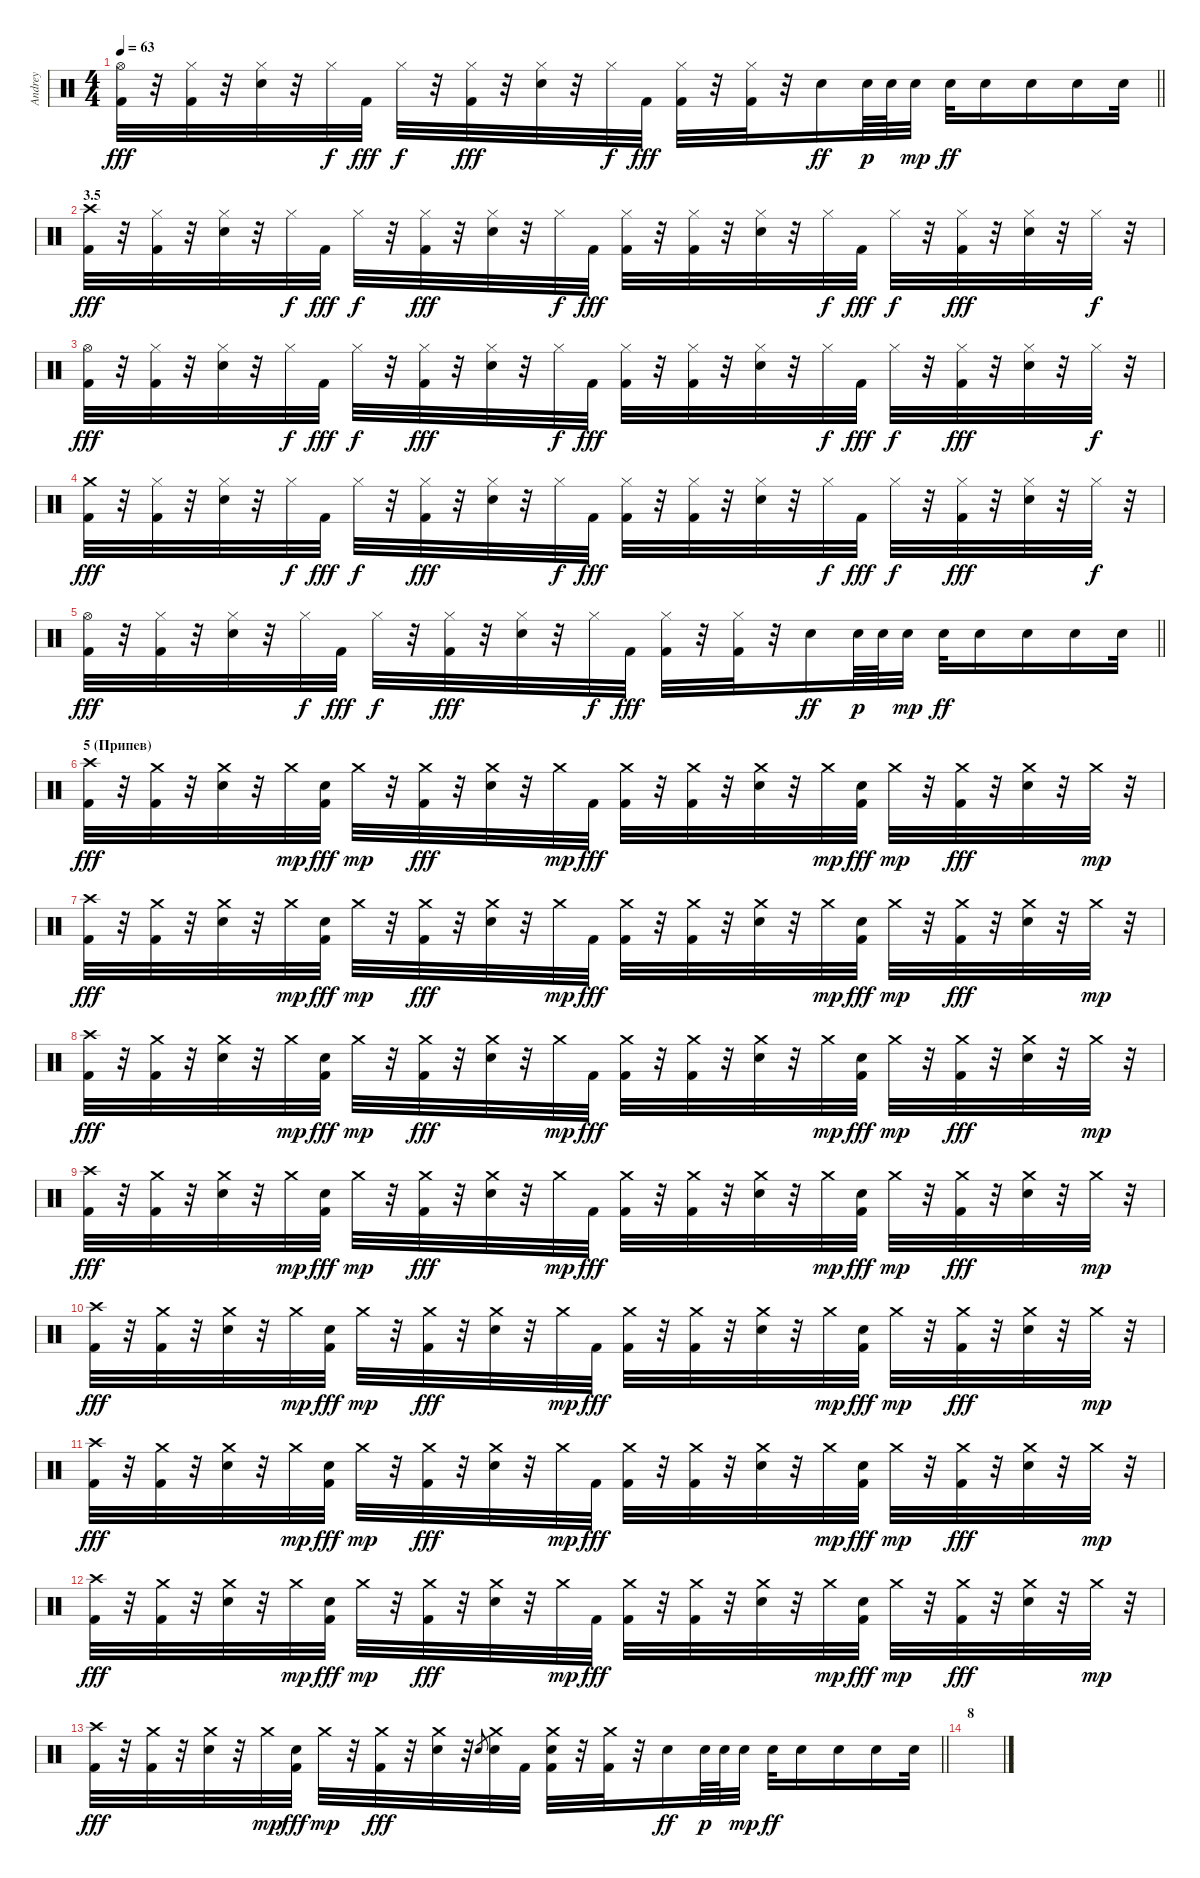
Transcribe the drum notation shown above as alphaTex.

\track ("Andrey" "Andrey") {instrument percussion}
\staff {score}
\articulation defaults
\ts (4 4)
\tempo 63
\clef neutral
\barLineRight lightlight
\ks c
("Hi-Hat (open)" "Kick (hit) 2").32{dy fff} r.32 ("Hi-Hat (closed)" "Kick (hit) 2").32 r.32 ("Hi-Hat (closed)" "Snare (hit) 2").32 r.32 "Hi-Hat (closed)".32{dy f} "Kick (hit) 2".32{dy fff} "Hi-Hat (closed)".32{dy f} r.32 ("Hi-Hat (closed)" "Kick (hit) 2").32{dy fff} r.32 ("Hi-Hat (closed)" "Snare (hit) 2").32 r.32 "Hi-Hat (closed)".32{dy f} "Kick (hit) 2".32{dy fff} ("Hi-Hat (closed)" "Kick (hit) 2").32 r.32 ("Hi-Hat (closed)" "Kick (hit) 2").32 r.32 "Electric Snare (hit)".16{dy ff} "Electric Snare (hit)".64{dy p} "Electric Snare (hit)".64 "Electric Snare (hit)".32{dy mp} "Electric Snare (hit)".32{dy ff} "Electric Snare (hit)".16 "Electric Snare (hit)".16 "Electric Snare (hit)".16 "Electric Snare (hit)".32 |
\section ("" "3.5")
("Crash high (hit)" "Kick (hit) 2").32{dy fff} r.32 ("Hi-Hat (closed)" "Kick (hit) 2").32 r.32 ("Hi-Hat (closed)" "Snare (hit) 2").32 r.32 "Hi-Hat (closed)".32{dy f} "Kick (hit) 2".32{dy fff} "Hi-Hat (closed)".32{dy f} r.32 ("Hi-Hat (closed)" "Kick (hit) 2").32{dy fff} r.32 ("Hi-Hat (closed)" "Snare (hit) 2").32 r.32 "Hi-Hat (closed)".32{dy f} "Kick (hit) 2".32{dy fff} ("Hi-Hat (closed)" "Kick (hit) 2").32 r.32 ("Hi-Hat (closed)" "Kick (hit) 2").32 r.32 ("Hi-Hat (closed)" "Snare (hit) 2").32 r.32 "Hi-Hat (closed)".32{dy f} "Kick (hit) 2".32{dy fff} "Hi-Hat (closed)".32{dy f} r.32 ("Hi-Hat (closed)" "Kick (hit) 2").32{dy fff} r.32 ("Hi-Hat (closed)" "Snare (hit) 2").32 r.32 "Hi-Hat (closed)".32{dy f} r.32 |
("Hi-Hat (open)" "Kick (hit) 2").32{dy fff} r.32 ("Hi-Hat (closed)" "Kick (hit) 2").32 r.32 ("Hi-Hat (closed)" "Snare (hit) 2").32 r.32 "Hi-Hat (closed)".32{dy f} "Kick (hit) 2".32{dy fff} "Hi-Hat (closed)".32{dy f} r.32 ("Hi-Hat (closed)" "Kick (hit) 2").32{dy fff} r.32 ("Hi-Hat (closed)" "Snare (hit) 2").32 r.32 "Hi-Hat (closed)".32{dy f} "Kick (hit) 2".32{dy fff} ("Hi-Hat (closed)" "Kick (hit) 2").32 r.32 ("Hi-Hat (closed)" "Kick (hit) 2").32 r.32 ("Hi-Hat (closed)" "Snare (hit) 2").32 r.32 "Hi-Hat (closed)".32{dy f} "Kick (hit) 2".32{dy fff} "Hi-Hat (closed)".32{dy f} r.32 ("Hi-Hat (closed)" "Kick (hit) 2").32{dy fff} r.32 ("Hi-Hat (closed)" "Snare (hit) 2").32 r.32 "Hi-Hat (closed)".32{dy f} r.32 |
("Crash medium (hit)" "Kick (hit) 2").32{dy fff} r.32 ("Hi-Hat (closed)" "Kick (hit) 2").32 r.32 ("Hi-Hat (closed)" "Snare (hit) 2").32 r.32 "Hi-Hat (closed)".32{dy f} "Kick (hit) 2".32{dy fff} "Hi-Hat (closed)".32{dy f} r.32 ("Hi-Hat (closed)" "Kick (hit) 2").32{dy fff} r.32 ("Hi-Hat (closed)" "Snare (hit) 2").32 r.32 "Hi-Hat (closed)".32{dy f} "Kick (hit) 2".32{dy fff} ("Hi-Hat (closed)" "Kick (hit) 2").32 r.32 ("Hi-Hat (closed)" "Kick (hit) 2").32 r.32 ("Hi-Hat (closed)" "Snare (hit) 2").32 r.32 "Hi-Hat (closed)".32{dy f} "Kick (hit) 2".32{dy fff} "Hi-Hat (closed)".32{dy f} r.32 ("Hi-Hat (closed)" "Kick (hit) 2").32{dy fff} r.32 ("Hi-Hat (closed)" "Snare (hit) 2").32 r.32 "Hi-Hat (closed)".32{dy f} r.32 |
\barLineRight lightlight
("Hi-Hat (open)" "Kick (hit) 2").32{dy fff} r.32 ("Hi-Hat (closed)" "Kick (hit) 2").32 r.32 ("Hi-Hat (closed)" "Snare (hit) 2").32 r.32 "Hi-Hat (closed)".32{dy f} "Kick (hit) 2".32{dy fff} "Hi-Hat (closed)".32{dy f} r.32 ("Hi-Hat (closed)" "Kick (hit) 2").32{dy fff} r.32 ("Hi-Hat (closed)" "Snare (hit) 2").32 r.32 "Hi-Hat (closed)".32{dy f} "Kick (hit) 2".32{dy fff} ("Hi-Hat (closed)" "Kick (hit) 2").32 r.32 ("Hi-Hat (closed)" "Kick (hit) 2").32 r.32 "Electric Snare (hit)".16{dy ff} "Electric Snare (hit)".64{dy p} "Electric Snare (hit)".64 "Electric Snare (hit)".32{dy mp} "Electric Snare (hit)".32{dy ff} "Electric Snare (hit)".16 "Electric Snare (hit)".16 "Electric Snare (hit)".16 "Electric Snare (hit)".32 |
\section ("" "5 (Припев)")
("Crash high (hit)" "Kick (hit) 2").32{dy fff} r.32 ("Crash medium (hit)" "Kick (hit) 2").32 r.32 ("Crash medium (hit)" "Snare (hit) 2").32 r.32 "Crash medium (hit)".32{dy mp} ("Snare (hit) 2" "Kick (hit) 2").32{dy fff} "Crash medium (hit)".32{dy mp} r.32 ("Crash medium (hit)" "Kick (hit) 2").32{dy fff} r.32 ("Crash medium (hit)" "Snare (hit) 2").32 r.32 "Crash medium (hit)".32{dy mp} "Kick (hit) 2".32{dy fff} ("Crash medium (hit)" "Kick (hit) 2").32 r.32 ("Crash medium (hit)" "Kick (hit) 2").32 r.32 ("Crash medium (hit)" "Snare (hit) 2").32 r.32 "Crash medium (hit)".32{dy mp} ("Snare (hit) 2" "Kick (hit) 2").32{dy fff} "Crash medium (hit)".32{dy mp} r.32 ("Crash medium (hit)" "Kick (hit) 2").32{dy fff} r.32 ("Crash medium (hit)" "Snare (hit) 2").32 r.32 "Crash medium (hit)".32{dy mp} r.32 |
("Crash high (hit)" "Kick (hit) 2").32{dy fff} r.32 ("Crash medium (hit)" "Kick (hit) 2").32 r.32 ("Crash medium (hit)" "Snare (hit) 2").32 r.32 "Crash medium (hit)".32{dy mp} ("Snare (hit) 2" "Kick (hit) 2").32{dy fff} "Crash medium (hit)".32{dy mp} r.32 ("Crash medium (hit)" "Kick (hit) 2").32{dy fff} r.32 ("Crash medium (hit)" "Snare (hit) 2").32 r.32 "Crash medium (hit)".32{dy mp} "Kick (hit) 2".32{dy fff} ("Crash medium (hit)" "Kick (hit) 2").32 r.32 ("Crash medium (hit)" "Kick (hit) 2").32 r.32 ("Crash medium (hit)" "Snare (hit) 2").32 r.32 "Crash medium (hit)".32{dy mp} ("Snare (hit) 2" "Kick (hit) 2").32{dy fff} "Crash medium (hit)".32{dy mp} r.32 ("Crash medium (hit)" "Kick (hit) 2").32{dy fff} r.32 ("Crash medium (hit)" "Snare (hit) 2").32 r.32 "Crash medium (hit)".32{dy mp} r.32 |
("Crash high (hit)" "Kick (hit) 2").32{dy fff} r.32 ("Crash medium (hit)" "Kick (hit) 2").32 r.32 ("Crash medium (hit)" "Snare (hit) 2").32 r.32 "Crash medium (hit)".32{dy mp} ("Snare (hit) 2" "Kick (hit) 2").32{dy fff} "Crash medium (hit)".32{dy mp} r.32 ("Crash medium (hit)" "Kick (hit) 2").32{dy fff} r.32 ("Crash medium (hit)" "Snare (hit) 2").32 r.32 "Crash medium (hit)".32{dy mp} "Kick (hit) 2".32{dy fff} ("Crash medium (hit)" "Kick (hit) 2").32 r.32 ("Crash medium (hit)" "Kick (hit) 2").32 r.32 ("Crash medium (hit)" "Snare (hit) 2").32 r.32 "Crash medium (hit)".32{dy mp} ("Snare (hit) 2" "Kick (hit) 2").32{dy fff} "Crash medium (hit)".32{dy mp} r.32 ("Crash medium (hit)" "Kick (hit) 2").32{dy fff} r.32 ("Crash medium (hit)" "Snare (hit) 2").32 r.32 "Crash medium (hit)".32{dy mp} r.32 |
("Crash high (hit)" "Kick (hit) 2").32{dy fff} r.32 ("Crash medium (hit)" "Kick (hit) 2").32 r.32 ("Crash medium (hit)" "Snare (hit) 2").32 r.32 "Crash medium (hit)".32{dy mp} ("Snare (hit) 2" "Kick (hit) 2").32{dy fff} "Crash medium (hit)".32{dy mp} r.32 ("Crash medium (hit)" "Kick (hit) 2").32{dy fff} r.32 ("Crash medium (hit)" "Snare (hit) 2").32 r.32 "Crash medium (hit)".32{dy mp} "Kick (hit) 2".32{dy fff} ("Crash medium (hit)" "Kick (hit) 2").32 r.32 ("Crash medium (hit)" "Kick (hit) 2").32 r.32 ("Crash medium (hit)" "Snare (hit) 2").32 r.32 "Crash medium (hit)".32{dy mp} ("Snare (hit) 2" "Kick (hit) 2").32{dy fff} "Crash medium (hit)".32{dy mp} r.32 ("Crash medium (hit)" "Kick (hit) 2").32{dy fff} r.32 ("Crash medium (hit)" "Snare (hit) 2").32 r.32 "Crash medium (hit)".32{dy mp} r.32 |
("Crash high (hit)" "Kick (hit) 2").32{dy fff} r.32 ("Crash medium (hit)" "Kick (hit) 2").32 r.32 ("Crash medium (hit)" "Snare (hit) 2").32 r.32 "Crash medium (hit)".32{dy mp} ("Snare (hit) 2" "Kick (hit) 2").32{dy fff} "Crash medium (hit)".32{dy mp} r.32 ("Crash medium (hit)" "Kick (hit) 2").32{dy fff} r.32 ("Crash medium (hit)" "Snare (hit) 2").32 r.32 "Crash medium (hit)".32{dy mp} "Kick (hit) 2".32{dy fff} ("Crash medium (hit)" "Kick (hit) 2").32 r.32 ("Crash medium (hit)" "Kick (hit) 2").32 r.32 ("Crash medium (hit)" "Snare (hit) 2").32 r.32 "Crash medium (hit)".32{dy mp} ("Snare (hit) 2" "Kick (hit) 2").32{dy fff} "Crash medium (hit)".32{dy mp} r.32 ("Crash medium (hit)" "Kick (hit) 2").32{dy fff} r.32 ("Crash medium (hit)" "Snare (hit) 2").32 r.32 "Crash medium (hit)".32{dy mp} r.32 |
("Crash high (hit)" "Kick (hit) 2").32{dy fff} r.32 ("Crash medium (hit)" "Kick (hit) 2").32 r.32 ("Crash medium (hit)" "Snare (hit) 2").32 r.32 "Crash medium (hit)".32{dy mp} ("Snare (hit) 2" "Kick (hit) 2").32{dy fff} "Crash medium (hit)".32{dy mp} r.32 ("Crash medium (hit)" "Kick (hit) 2").32{dy fff} r.32 ("Crash medium (hit)" "Snare (hit) 2").32 r.32 "Crash medium (hit)".32{dy mp} "Kick (hit) 2".32{dy fff} ("Crash medium (hit)" "Kick (hit) 2").32 r.32 ("Crash medium (hit)" "Kick (hit) 2").32 r.32 ("Crash medium (hit)" "Snare (hit) 2").32 r.32 "Crash medium (hit)".32{dy mp} ("Snare (hit) 2" "Kick (hit) 2").32{dy fff} "Crash medium (hit)".32{dy mp} r.32 ("Crash medium (hit)" "Kick (hit) 2").32{dy fff} r.32 ("Crash medium (hit)" "Snare (hit) 2").32 r.32 "Crash medium (hit)".32{dy mp} r.32 |
("Crash high (hit)" "Kick (hit) 2").32{dy fff} r.32 ("Crash medium (hit)" "Kick (hit) 2").32 r.32 ("Crash medium (hit)" "Snare (hit) 2").32 r.32 "Crash medium (hit)".32{dy mp} ("Snare (hit) 2" "Kick (hit) 2").32{dy fff} "Crash medium (hit)".32{dy mp} r.32 ("Crash medium (hit)" "Kick (hit) 2").32{dy fff} r.32 ("Crash medium (hit)" "Snare (hit) 2").32 r.32 "Crash medium (hit)".32{dy mp} "Kick (hit) 2".32{dy fff} ("Crash medium (hit)" "Kick (hit) 2").32 r.32 ("Crash medium (hit)" "Kick (hit) 2").32 r.32 ("Crash medium (hit)" "Snare (hit) 2").32 r.32 "Crash medium (hit)".32{dy mp} ("Snare (hit) 2" "Kick (hit) 2").32{dy fff} "Crash medium (hit)".32{dy mp} r.32 ("Crash medium (hit)" "Kick (hit) 2").32{dy fff} r.32 ("Crash medium (hit)" "Snare (hit) 2").32 r.32 "Crash medium (hit)".32{dy mp} r.32 |
\barLineRight lightlight
("Crash high (hit)" "Kick (hit) 2").32{dy fff} r.32 ("Crash medium (hit)" "Kick (hit) 2").32 r.32 ("Crash medium (hit)" "Snare (hit) 2").32 r.32 "Crash medium (hit)".32{dy mp} ("Snare (hit) 2" "Kick (hit) 2").32{dy fff} "Crash medium (hit)".32{dy mp} r.32 ("Crash medium (hit)" "Kick (hit) 2").32{dy fff} r.32 ("Crash medium (hit)" "Snare (hit) 2").32 r.32 "Snare (hit) 2".8{gr} ("Crash medium (hit)" "Electric Snare (hit)").32 "Kick (hit) 2".32 ("Crash medium (hit)" "Electric Snare (hit)" "Kick (hit) 2").32 r.32 ("Crash medium (hit)" "Kick (hit) 2").32 r.32 "Electric Snare (hit)".16{dy ff} "Electric Snare (hit)".64{dy p} "Electric Snare (hit)".64 "Electric Snare (hit)".32{dy mp} "Electric Snare (hit)".32{dy ff} "Electric Snare (hit)".16 "Electric Snare (hit)".16 "Electric Snare (hit)".16 "Electric Snare (hit)".32 |
\section ("" "8")
